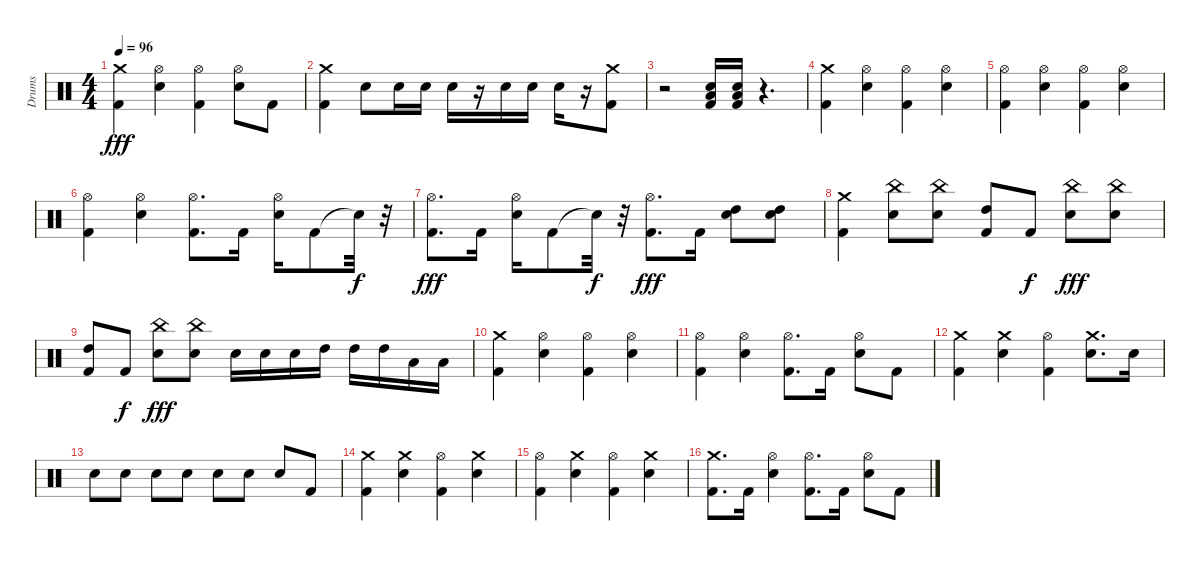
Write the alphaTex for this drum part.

\track ("Drums" "Drums") {instrument percussion}
\staff {score}
\articulation defaults
\ts (4 4)
\tempo 96
\clef neutral
\ks c
("Kick (hit) 2" "Crash medium (hit)").4{dy fff} ("Hi-Hat (open)" "Snare (hit) 2").4 ("Hi-Hat (open)" "Kick (hit) 2").4 ("Hi-Hat (open)" "Snare (hit) 2").8 "Kick (hit) 2".8 |
("Kick (hit) 2" "Crash medium (hit)").4 "Snare (hit) 2".8 "Snare (hit) 2".16 "Snare (hit) 2".16 "Snare (hit) 2".16 r.16 "Snare (hit) 2".16 "Snare (hit) 2".16 "Snare (hit) 2".16 r.16 ("Crash medium (hit)" "Kick (hit) 2").8 |
r.2 ("Snare (hit) 2" "Kick (hit) 2" "Low Floor Tom (hit)").16 ("Snare (hit) 2" "Kick (hit) 2" "Low Floor Tom (hit)").16 r.4{d} |
("Kick (hit) 2" "Crash medium (hit)").4 ("Hi-Hat (open)" "Snare (hit) 2").4 ("Hi-Hat (open)" "Kick (hit) 2").4 ("Hi-Hat (open)" "Snare (hit) 2").4 |
("Hi-Hat (open)" "Kick (hit) 2").4 ("Hi-Hat (open)" "Snare (hit) 2").4 ("Hi-Hat (open)" "Kick (hit) 2").4 ("Hi-Hat (open)" "Snare (hit) 2").4 |
("Hi-Hat (open)" "Kick (hit) 2").4 ("Hi-Hat (open)" "Snare (hit) 2").4 ("Hi-Hat (open)" "Kick (hit) 2").8{d} "Kick (hit) 2".16 ("Hi-Hat (open)" "Snare (hit) 2").16 "Kick (hit) 2".8 "Snare (hit)"{t}.32{dy f} r.32 |
("Hi-Hat (open)" "Kick (hit) 2").8{d dy fff} "Kick (hit) 2".16 ("Hi-Hat (open)" "Snare (hit) 2").16 "Kick (hit) 2".8 "Snare (hit)"{t}.32{dy f} r.32 ("Hi-Hat (open)" "Kick (hit) 2").8{d dy fff} "Kick (hit) 2".16 ("High Tom (hit)" "Snare (hit) 2").8 ("High Tom (hit)" "Snare (hit) 2").8 |
("Kick (hit) 2" "Crash medium (hit)").4 ("Snare (hit) 2" "China (hit)").8 ("Snare (hit) 2" "China (hit)").8 ("High Tom (hit)" "Kick (hit) 2").8 "Kick (hit) 2".8{dy f} ("Snare (hit) 2" "China (hit)").8{dy fff} ("Snare (hit) 2" "China (hit)").8 |
("High Tom (hit)" "Kick (hit) 2").8 "Kick (hit) 2".8{dy f} ("Snare (hit) 2" "China (hit)").8{dy fff} ("Snare (hit) 2" "China (hit)").8 "Snare (hit) 2".16 "Snare (hit) 2".16 "Snare (hit) 2".16 "High Tom (hit)".16 "High Tom (hit)".16 "High Tom (hit)".16 "Low Tom (hit)".16 "Low Tom (hit)".16 |
("Kick (hit) 2" "Crash medium (hit)").4 ("Hi-Hat (open)" "Snare (hit) 2").4 ("Hi-Hat (open)" "Kick (hit) 2").4 ("Hi-Hat (open)" "Snare (hit) 2").4 |
("Kick (hit) 2" "Hi-Hat (open)").4 ("Hi-Hat (open)" "Snare (hit) 2").4 ("Hi-Hat (open)" "Kick (hit) 2").8{d} "Kick (hit) 2".16 ("Hi-Hat (open)" "Snare (hit) 2").8 "Kick (hit) 2".8 |
("Kick (hit) 2" "Crash medium (hit)").4 ("Snare (hit) 2" "Crash medium (hit)").4 ("Hi-Hat (open)" "Kick (hit) 2").4 ("Snare (hit) 2" "Crash medium (hit)").8{d} "Snare (hit) 2".16 |
"Snare (hit) 2".8 "Snare (hit) 2".8 "Snare (hit) 2".8 "Snare (hit) 2".8 "Snare (hit) 2".8 "Snare (hit) 2".8 "Snare (hit) 2".8 "Kick (hit) 2".8 |
("Kick (hit) 2" "Crash medium (hit)").4 ("Snare (hit) 2" "Crash medium (hit)").4 ("Hi-Hat (open)" "Kick (hit) 2").4 ("Snare (hit) 2" "Crash medium (hit)").4 |
("Hi-Hat (open)" "Kick (hit) 2").4 ("Snare (hit) 2" "Crash medium (hit)").4 ("Hi-Hat (open)" "Kick (hit) 2").4 ("Snare (hit) 2" "Crash medium (hit)").4 |
("Kick (hit) 2" "Crash medium (hit)").8{d} "Kick (hit) 2".16 ("Snare (hit) 2" "Hi-Hat (open)").4 ("Kick (hit) 2" "Hi-Hat (open)").8{d} "Kick (hit) 2".16 ("Snare (hit) 2" "Hi-Hat (open)").8 "Kick (hit) 2".8
